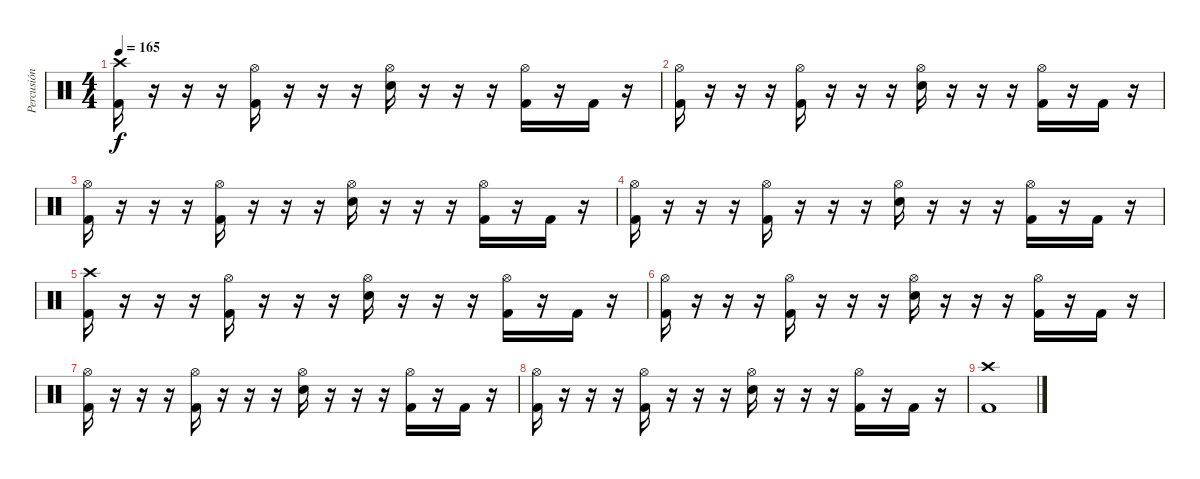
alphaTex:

\track ("Percusión" "Percusión") {instrument percussion}
\staff {score}
\articulation defaults
\ts (4 4)
\tempo 165
\clef neutral
\ks c
("Crash high (hit)" "Kick (hit) 2").16{dy f} r.16 r.16 r.16 ("Hi-Hat (open)" "Kick (hit) 2").16 r.16 r.16 r.16 ("Hi-Hat (open)" "Electric Snare (hit)").16 r.16 r.16 r.16 ("Hi-Hat (open)" "Kick (hit) 2").16 r.16 "Kick (hit) 2".16 r.16 |
("Hi-Hat (open)" "Kick (hit) 2").16 r.16 r.16 r.16 ("Hi-Hat (open)" "Kick (hit) 2").16 r.16 r.16 r.16 ("Hi-Hat (open)" "Electric Snare (hit)").16 r.16 r.16 r.16 ("Hi-Hat (open)" "Kick (hit) 2").16 r.16 "Kick (hit) 2".16 r.16 |
("Hi-Hat (open)" "Kick (hit) 2").16 r.16 r.16 r.16 ("Hi-Hat (open)" "Kick (hit) 2").16 r.16 r.16 r.16 ("Hi-Hat (open)" "Electric Snare (hit)").16 r.16 r.16 r.16 ("Hi-Hat (open)" "Kick (hit) 2").16 r.16 "Kick (hit) 2".16 r.16 |
("Hi-Hat (open)" "Kick (hit) 2").16 r.16 r.16 r.16 ("Hi-Hat (open)" "Kick (hit) 2").16 r.16 r.16 r.16 ("Hi-Hat (open)" "Electric Snare (hit)").16 r.16 r.16 r.16 ("Hi-Hat (open)" "Kick (hit) 2").16 r.16 "Kick (hit) 2".16 r.16 |
("Crash high (hit)" "Kick (hit) 2").16 r.16 r.16 r.16 ("Hi-Hat (open)" "Kick (hit) 2").16 r.16 r.16 r.16 ("Hi-Hat (open)" "Electric Snare (hit)").16 r.16 r.16 r.16 ("Hi-Hat (open)" "Kick (hit) 2").16 r.16 "Kick (hit) 2".16 r.16 |
("Hi-Hat (open)" "Kick (hit) 2").16 r.16 r.16 r.16 ("Hi-Hat (open)" "Kick (hit) 2").16 r.16 r.16 r.16 ("Hi-Hat (open)" "Electric Snare (hit)").16 r.16 r.16 r.16 ("Hi-Hat (open)" "Kick (hit) 2").16 r.16 "Kick (hit) 2".16 r.16 |
("Hi-Hat (open)" "Kick (hit) 2").16 r.16 r.16 r.16 ("Hi-Hat (open)" "Kick (hit) 2").16 r.16 r.16 r.16 ("Hi-Hat (open)" "Electric Snare (hit)").16 r.16 r.16 r.16 ("Hi-Hat (open)" "Kick (hit) 2").16 r.16 "Kick (hit) 2".16 r.16 |
("Hi-Hat (open)" "Kick (hit) 2").16 r.16 r.16 r.16 ("Hi-Hat (open)" "Kick (hit) 2").16 r.16 r.16 r.16 ("Hi-Hat (open)" "Electric Snare (hit)").16 r.16 r.16 r.16 ("Hi-Hat (open)" "Kick (hit) 2").16 r.16 "Kick (hit) 2".16 r.16 |
("Crash high (hit)" "Kick (hit) 2").1
